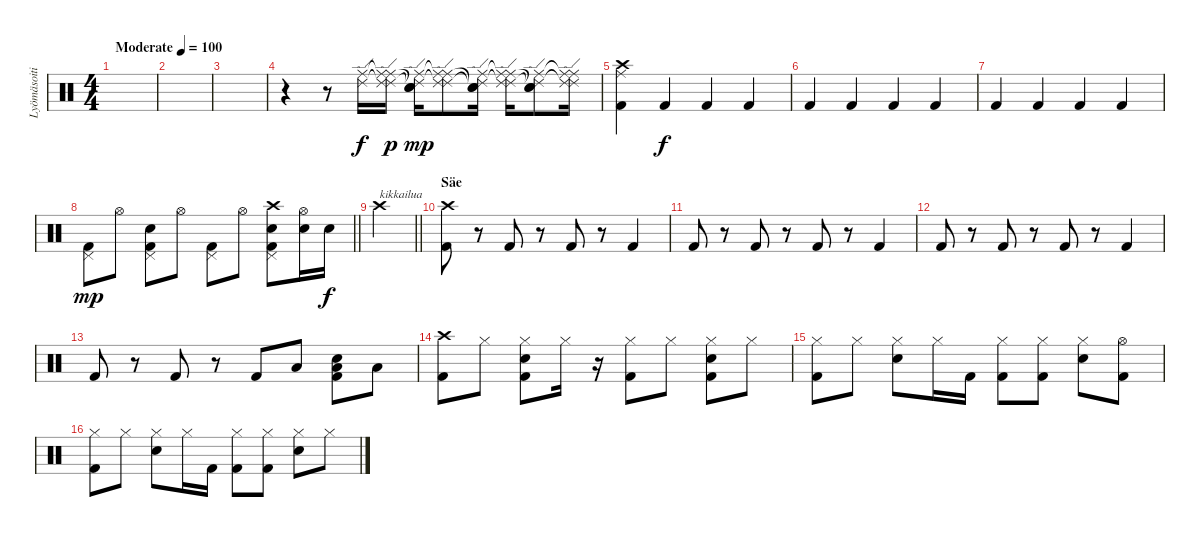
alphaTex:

\track ("Lyömäsoitin" "Lyömäsoiti") {instrument percussion}
\staff {score}
\articulation defaults
\ts (4 4)
\tempo (100 "Moderate")
\clef neutral
\ks c
|
|
|
r.4 r.8 ("Ride (middle)" "Ride (edge) 2").16 ("Ride (middle)"{t} "Ride (edge) 2"{t} "Ride (middle)" "Ride (edge) 2").16{dy p} ("Ride (middle)" "Ride (edge) 2" "Snare (hit)"{t} "Snare (hit)"{t}).16{dy mp} ("Ride (middle)"{t} "Ride (edge) 2"{t} "Ride (middle)" "Ride (edge) 2").8 ("Ride (middle)" "Ride (edge) 2" "Snare (hit)"{t} "Snare (hit)"{t}).16 ("Ride (middle)"{t} "Ride (edge) 2"{t} "Ride (middle)" "Ride (edge) 2").16 ("Ride (middle)" "Ride (edge) 2" "Snare (hit)"{t} "Snare (hit)"{t}).8 ("Ride (middle)"{t} "Ride (edge) 2"{t} "Ride (middle)" "Ride (edge) 2").16 |
("Crash high (hit)" "Ride (middle)" "Kick (hit) 2").4 "Kick (hit) 2".4{dy f} "Kick (hit) 2".4 "Kick (hit) 2".4 |
"Kick (hit) 2".4 "Kick (hit) 2".4 "Kick (hit) 2".4 "Kick (hit) 2".4 |
"Kick (hit) 2".4 "Kick (hit) 2".4 "Kick (hit) 2".4 "Kick (hit) 2".4 |
\barLineRight lightlight
("Pedal Hi-Hat (hit)" "Kick (hit) 2").8{dy mp} "Hi-Hat (open)".8 ("Snare (hit) 2" "Pedal Hi-Hat (hit)" "Kick (hit) 2").8 "Hi-Hat (open)".8 ("Pedal Hi-Hat (hit)" "Kick (hit) 2").8 "Hi-Hat (open)".8 ("Crash high (hit)" "Snare (hit) 2" "Pedal Hi-Hat (hit)" "Kick (hit) 2").8 ("Snare (hit) 2" "Hi-Hat (open)").16 "Snare (hit) 2".16{dy f} |
\barLineRight lightlight "Crash high (hit)".4{txt "kikkailua"}
|
\section ("" "Säe")
("Crash high (hit)" "Kick (hit) 2").8 r.8 "Kick (hit) 2".8 r.8 "Kick (hit) 2".8 r.8 "Kick (hit) 2".4 |
"Kick (hit) 2".8 r.8 "Kick (hit) 2".8 r.8 "Kick (hit) 2".8 r.8 "Kick (hit) 2".4 |
"Kick (hit) 2".8 r.8 "Kick (hit) 2".8 r.8 "Kick (hit) 2".8 r.8 "Kick (hit) 2".4 |
"Kick (hit) 2".8 r.8 "Kick (hit) 2".8 r.8 "Kick (hit) 2".8 "Low Floor Tom (hit)".8 ("Snare (hit) 2" "Low Floor Tom (hit)" "Kick (hit) 2").8 "Low Floor Tom (hit)".8 |
("Crash high (hit)" "Kick (hit) 2").8 "Hi-Hat (closed)".8 ("Hi-Hat (closed)" "Snare (hit) 2" "Kick (hit) 2").8 "Hi-Hat (closed)".16 r.16 ("Hi-Hat (closed)" "Kick (hit) 2").8 "Hi-Hat (closed)".8 ("Hi-Hat (closed)" "Snare (hit) 2" "Kick (hit) 2").8 "Hi-Hat (closed)".8 |
("Hi-Hat (closed)" "Kick (hit) 2").8 "Hi-Hat (closed)".8 ("Hi-Hat (closed)" "Snare (hit) 2").8 "Hi-Hat (closed)".16 "Kick (hit) 2".16 ("Hi-Hat (closed)" "Kick (hit) 2").8 ("Hi-Hat (closed)" "Kick (hit) 2").8 ("Hi-Hat (closed)" "Snare (hit) 2").8 ("Hi-Hat (open)" "Kick (hit) 2").8 |
("Hi-Hat (closed)" "Kick (hit) 2").8 "Hi-Hat (closed)".8 ("Hi-Hat (closed)" "Snare (hit) 2").8 "Hi-Hat (closed)".16 "Kick (hit) 2".16 ("Hi-Hat (closed)" "Kick (hit) 2").8 ("Hi-Hat (closed)" "Kick (hit) 2").8 ("Hi-Hat (closed)" "Snare (hit) 2").8 "Hi-Hat (closed)".8
